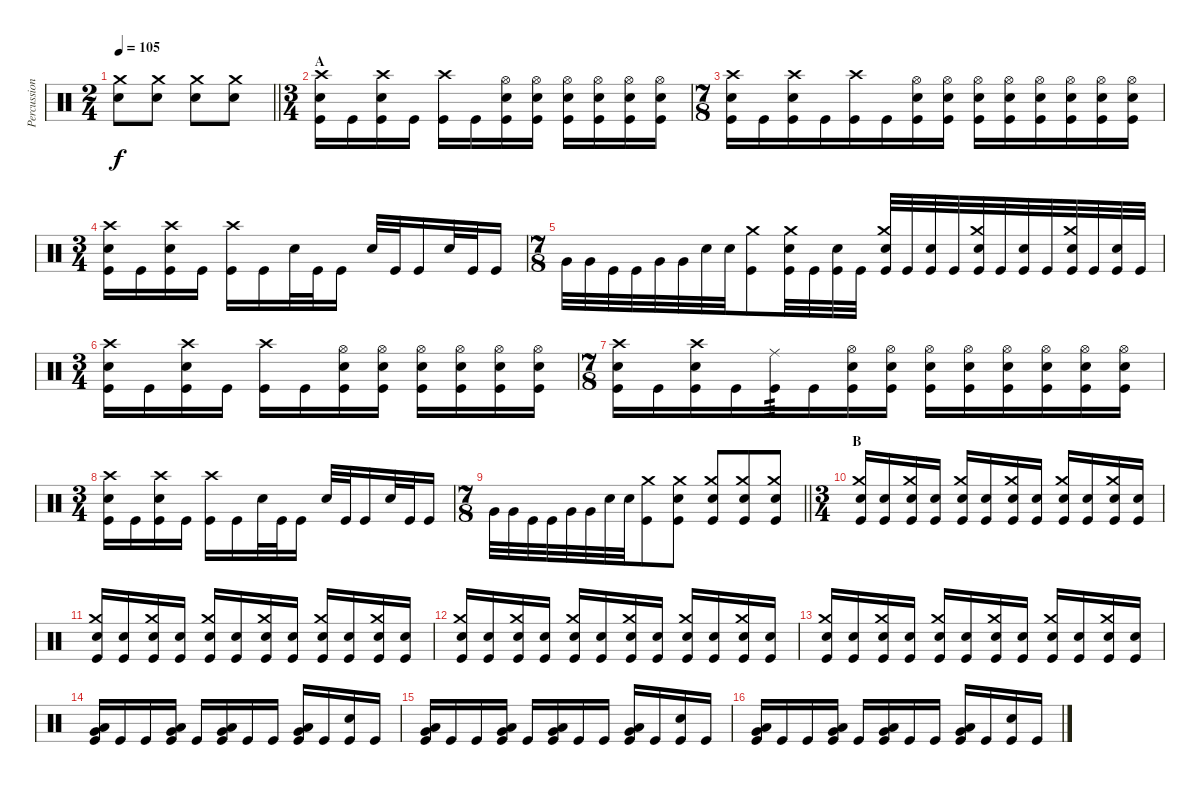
\track ("Percussion" "Percussion") {instrument percussion}
\staff {score}
\articulation defaults
\ts (2 4)
\tempo 105
\clef neutral
\barLineRight lightlight
\ks c
("Snare (hit) 2" "Crash medium (hit)").8{dy f} ("Snare (hit) 2" "Crash medium (hit)").8 ("Snare (hit) 2" "Crash medium (hit)").8 ("Snare (hit) 2" "Crash medium (hit)").8 |
\ts (3 4)
\section ("" "A")
("Kick (hit)" "Snare (hit) 2" "Crash high (hit)").16 "Kick (hit)".16 ("Kick (hit)" "Snare (hit) 2" "Crash high (hit)").16 "Kick (hit)".16 ("Kick (hit)" "Crash high (hit)").16 "Kick (hit)".16 ("Kick (hit)" "Hi-Hat (open)" "Snare (hit) 2").16 ("Kick (hit)" "Hi-Hat (open)" "Snare (hit) 2").16 ("Kick (hit)" "Hi-Hat (open)" "Snare (hit) 2").16 ("Kick (hit)" "Hi-Hat (open)" "Snare (hit) 2").16 ("Kick (hit)" "Hi-Hat (open)" "Snare (hit) 2").16 ("Kick (hit)" "Hi-Hat (open)" "Snare (hit) 2").16 |
\ts (7 8)
("Kick (hit)" "Snare (hit) 2" "Crash high (hit)").16 "Kick (hit)".16 ("Kick (hit)" "Snare (hit) 2" "Crash high (hit)").16 "Kick (hit)".16 ("Kick (hit)" "Crash high (hit)").16 "Kick (hit)".16 ("Kick (hit)" "Hi-Hat (open)" "Snare (hit) 2").16 ("Kick (hit)" "Hi-Hat (open)" "Snare (hit) 2").16 ("Kick (hit)" "Hi-Hat (open)" "Snare (hit) 2").16 ("Kick (hit)" "Hi-Hat (open)" "Snare (hit) 2").16 ("Kick (hit)" "Hi-Hat (open)" "Snare (hit) 2").16 ("Kick (hit)" "Hi-Hat (open)" "Snare (hit) 2").16 ("Kick (hit)" "Hi-Hat (open)" "Snare (hit) 2").16 ("Kick (hit)" "Hi-Hat (open)" "Snare (hit) 2").16 |
\ts (3 4)
("Kick (hit)" "Snare (hit) 2" "Crash high (hit)").16 "Kick (hit)".16 ("Kick (hit)" "Snare (hit) 2" "Crash high (hit)").16 "Kick (hit)".16 ("Kick (hit)" "Crash high (hit)").16 "Kick (hit)".16 "Snare (hit) 2".32 "Kick (hit)".32 "Kick (hit)".16 "Snare (hit) 2".32 "Kick (hit)".32 "Kick (hit)".16 "Snare (hit) 2".32 "Kick (hit)".32 "Kick (hit)".16 |
\ts (7 8)
"Very Low Tom (hit)".32 "Very Low Tom (hit)".32 "Kick (hit)".32 "Kick (hit)".32 "Very Low Tom (hit)".32 "Very Low Tom (hit)".32 "Snare (hit) 2".32 "Snare (hit) 2".32 ("Kick (hit)" "Crash medium (hit)").8 ("Kick (hit)" "Crash medium (hit)" "Snare (hit) 2").32 "Kick (hit)".32 ("Kick (hit)" "Snare (hit) 2").32 "Kick (hit)".32 ("Kick (hit)" "Crash medium (hit)" "Snare (hit) 2").32 "Kick (hit)".32 ("Kick (hit)" "Snare (hit) 2").32 "Kick (hit)".32 ("Kick (hit)" "Crash medium (hit)" "Snare (hit) 2").32 "Kick (hit)".32 ("Kick (hit)" "Snare (hit) 2").32 "Kick (hit)".32 ("Kick (hit)" "Crash medium (hit)" "Snare (hit) 2").32 "Kick (hit)".32 ("Kick (hit)" "Snare (hit) 2").32 "Kick (hit)".32 |
\ts (3 4)
("Kick (hit)" "Snare (hit) 2" "Crash high (hit)").16 "Kick (hit)".16 ("Kick (hit)" "Snare (hit) 2" "Crash high (hit)").16 "Kick (hit)".16 ("Kick (hit)" "Crash high (hit)").16 "Kick (hit)".16 ("Kick (hit)" "Hi-Hat (open)" "Snare (hit) 2").16 ("Kick (hit)" "Hi-Hat (open)" "Snare (hit) 2").16 ("Kick (hit)" "Hi-Hat (open)" "Snare (hit) 2").16 ("Kick (hit)" "Hi-Hat (open)" "Snare (hit) 2").16 ("Kick (hit)" "Hi-Hat (open)" "Snare (hit) 2").16 ("Kick (hit)" "Hi-Hat (open)" "Snare (hit) 2").16 |
\ts (7 8)
("Kick (hit)" "Snare (hit) 2" "Crash high (hit)").16 "Kick (hit)".16 ("Kick (hit)" "Snare (hit) 2" "Crash high (hit)").16 "Kick (hit)".16 ("Kick (hit)" "Ride (middle)").16{tp 3} "Kick (hit)".16 ("Kick (hit)" "Hi-Hat (open)" "Snare (hit) 2").16 ("Kick (hit)" "Hi-Hat (open)" "Snare (hit) 2").16 ("Kick (hit)" "Hi-Hat (open)" "Snare (hit) 2").16 ("Kick (hit)" "Hi-Hat (open)" "Snare (hit) 2").16 ("Kick (hit)" "Hi-Hat (open)" "Snare (hit) 2").16 ("Kick (hit)" "Hi-Hat (open)" "Snare (hit) 2").16 ("Kick (hit)" "Hi-Hat (open)" "Snare (hit) 2").16 ("Kick (hit)" "Hi-Hat (open)" "Snare (hit) 2").16 |
\ts (3 4)
("Kick (hit)" "Snare (hit) 2" "Crash high (hit)").16 "Kick (hit)".16 ("Kick (hit)" "Snare (hit) 2" "Crash high (hit)").16 "Kick (hit)".16 ("Kick (hit)" "Crash high (hit)").16 "Kick (hit)".16 "Snare (hit) 2".32 "Kick (hit)".32 "Kick (hit)".16 "Snare (hit) 2".32 "Kick (hit)".32 "Kick (hit)".16 "Snare (hit) 2".32 "Kick (hit)".32 "Kick (hit)".16 |
\ts (7 8)
\barLineRight lightlight "Very Low Tom (hit)".32 "Very Low Tom (hit)".32 "Kick (hit)".32 "Kick (hit)".32 "Very Low Tom (hit)".32 "Very Low Tom (hit)".32 "Snare (hit) 2".32 "Snare (hit) 2".32
("Kick (hit)" "Crash medium (hit)").8 ("Kick (hit)" "Snare (hit) 2" "Crash medium (hit)").8 ("Kick (hit)" "Snare (hit) 2" "Crash medium (hit)").8 ("Kick (hit)" "Snare (hit) 2" "Crash medium (hit)").8 ("Kick (hit)" "Snare (hit) 2" "Crash medium (hit)").8 |
\ts (3 4)
\section ("" "B")
("Kick (hit)" "Crash medium (hit)" "Snare (hit) 2").16 ("Kick (hit)" "Snare (hit) 2").16 ("Kick (hit)" "Crash medium (hit)" "Snare (hit) 2").16 ("Kick (hit)" "Snare (hit) 2").16 ("Kick (hit)" "Crash medium (hit)" "Snare (hit) 2").16 ("Kick (hit)" "Snare (hit) 2").16 ("Kick (hit)" "Crash medium (hit)" "Snare (hit) 2").16 ("Kick (hit)" "Snare (hit) 2").16 ("Kick (hit)" "Crash medium (hit)" "Snare (hit) 2").16 ("Kick (hit)" "Snare (hit) 2").16 ("Kick (hit)" "Crash medium (hit)" "Snare (hit) 2").16 ("Kick (hit)" "Snare (hit) 2").16 |
("Kick (hit)" "Crash medium (hit)" "Snare (hit) 2").16 ("Kick (hit)" "Snare (hit) 2").16 ("Kick (hit)" "Crash medium (hit)" "Snare (hit) 2").16 ("Kick (hit)" "Snare (hit) 2").16 ("Kick (hit)" "Crash medium (hit)" "Snare (hit) 2").16 ("Kick (hit)" "Snare (hit) 2").16 ("Kick (hit)" "Crash medium (hit)" "Snare (hit) 2").16 ("Kick (hit)" "Snare (hit) 2").16 ("Kick (hit)" "Crash medium (hit)" "Snare (hit) 2").16 ("Kick (hit)" "Snare (hit) 2").16 ("Kick (hit)" "Crash medium (hit)" "Snare (hit) 2").16 ("Kick (hit)" "Snare (hit) 2").16 |
("Kick (hit)" "Crash medium (hit)" "Snare (hit) 2").16 ("Kick (hit)" "Snare (hit) 2").16 ("Kick (hit)" "Crash medium (hit)" "Snare (hit) 2").16 ("Kick (hit)" "Snare (hit) 2").16 ("Kick (hit)" "Crash medium (hit)" "Snare (hit) 2").16 ("Kick (hit)" "Snare (hit) 2").16 ("Kick (hit)" "Crash medium (hit)" "Snare (hit) 2").16 ("Kick (hit)" "Snare (hit) 2").16 ("Kick (hit)" "Crash medium (hit)" "Snare (hit) 2").16 ("Kick (hit)" "Snare (hit) 2").16 ("Kick (hit)" "Crash medium (hit)" "Snare (hit) 2").16 ("Kick (hit)" "Snare (hit) 2").16 |
("Kick (hit)" "Crash medium (hit)" "Snare (hit) 2").16 ("Kick (hit)" "Snare (hit) 2").16 ("Kick (hit)" "Crash medium (hit)" "Snare (hit) 2").16 ("Kick (hit)" "Snare (hit) 2").16 ("Kick (hit)" "Crash medium (hit)" "Snare (hit) 2").16 ("Kick (hit)" "Snare (hit) 2").16 ("Kick (hit)" "Crash medium (hit)" "Snare (hit) 2").16 ("Kick (hit)" "Snare (hit) 2").16 ("Kick (hit)" "Crash medium (hit)" "Snare (hit) 2").16 ("Kick (hit)" "Snare (hit) 2").16 ("Kick (hit)" "Crash medium (hit)" "Snare (hit) 2").16 ("Kick (hit)" "Snare (hit) 2").16 |
("Kick (hit)" "Low Floor Tom (hit)" "Very Low Tom (hit)").16 "Kick (hit)".16 "Kick (hit)".16 ("Kick (hit)" "Low Floor Tom (hit)" "Very Low Tom (hit)").16 "Kick (hit)".16 ("Kick (hit)" "Low Floor Tom (hit)" "Very Low Tom (hit)").16 "Kick (hit)".16 "Kick (hit)".16 ("Kick (hit)" "Low Floor Tom (hit)" "Very Low Tom (hit)").16 "Kick (hit)".16 ("Kick (hit)" "Snare (hit) 2").16 "Kick (hit)".16 |
("Kick (hit)" "Low Floor Tom (hit)" "Very Low Tom (hit)").16 "Kick (hit)".16 "Kick (hit)".16 ("Kick (hit)" "Low Floor Tom (hit)" "Very Low Tom (hit)").16 "Kick (hit)".16 ("Kick (hit)" "Low Floor Tom (hit)" "Very Low Tom (hit)").16 "Kick (hit)".16 "Kick (hit)".16 ("Kick (hit)" "Low Floor Tom (hit)" "Very Low Tom (hit)").16 "Kick (hit)".16 ("Kick (hit)" "Snare (hit) 2").16 "Kick (hit)".16 |
("Kick (hit)" "Low Floor Tom (hit)" "Very Low Tom (hit)").16 "Kick (hit)".16 "Kick (hit)".16 ("Kick (hit)" "Low Floor Tom (hit)" "Very Low Tom (hit)").16 "Kick (hit)".16 ("Kick (hit)" "Low Floor Tom (hit)" "Very Low Tom (hit)").16 "Kick (hit)".16 "Kick (hit)".16 ("Kick (hit)" "Low Floor Tom (hit)" "Very Low Tom (hit)").16 "Kick (hit)".16 ("Kick (hit)" "Snare (hit) 2").16 "Kick (hit)".16
